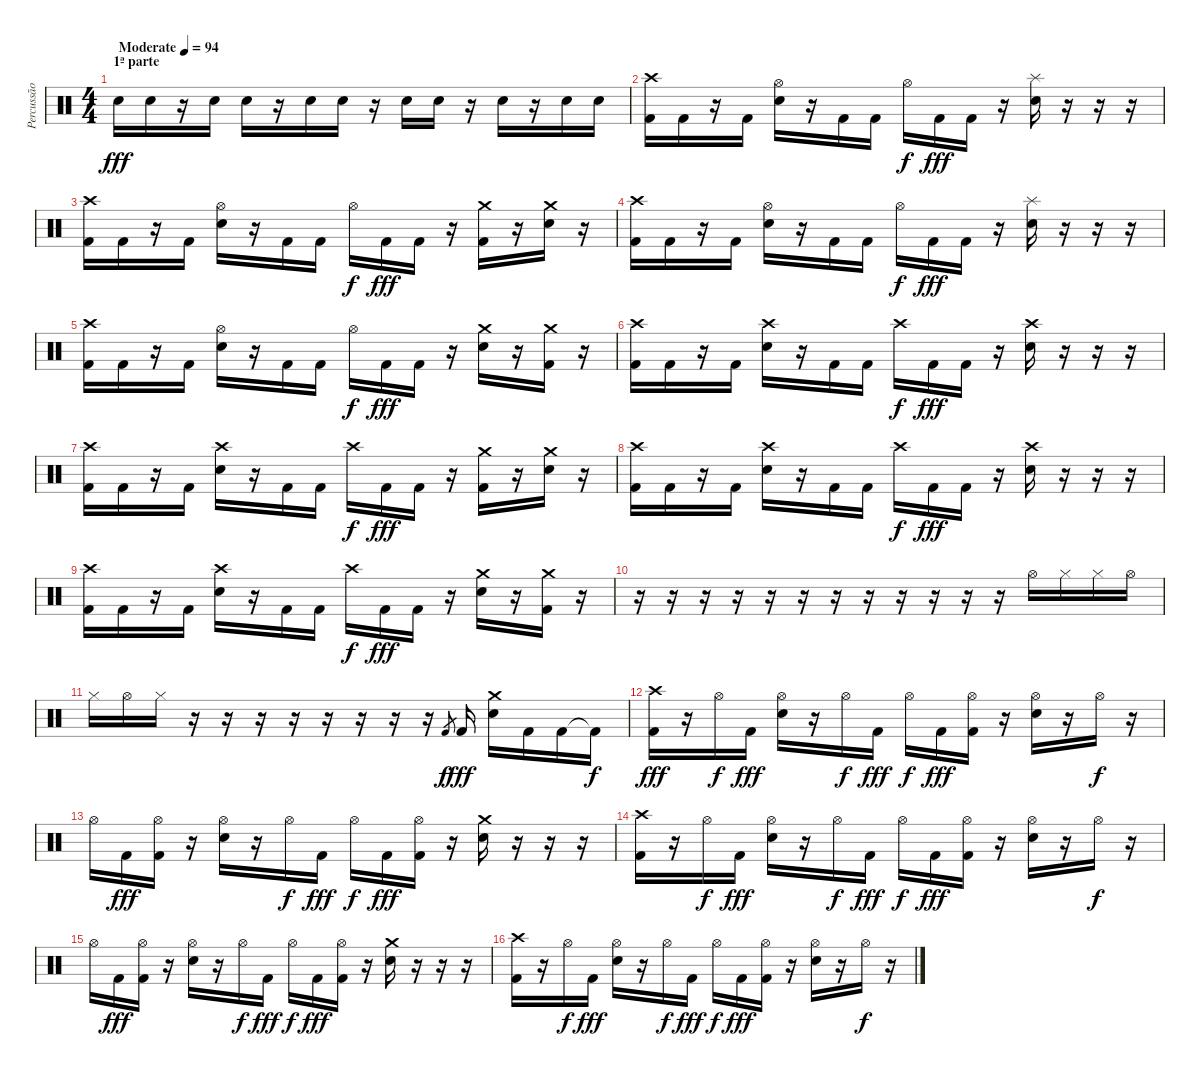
\track ("Percussão" "Percussão") {instrument percussion}
\staff {score}
\articulation defaults
\ts (4 4)
\section ("" "1ª parte")
\tempo (94 "Moderate")
\clef neutral
\ks c "Electric Snare (hit)".16{dy fff} "Electric Snare (hit)".16
r.16 "Electric Snare (hit)".16 "Electric Snare (hit)".16 r.16 "Electric Snare (hit)".16 "Electric Snare (hit)".16 r.16 "Electric Snare (hit)".16 "Electric Snare (hit)".16 r.16 "Electric Snare (hit)".16 r.16 "Electric Snare (hit)".16 "Electric Snare (hit)".16 |
("Crash high (hit)" "Kick (hit) 2").16 "Kick (hit) 2".16 r.16 "Kick (hit) 2".16 ("Hi-Hat (open)" "Electric Snare (hit)").16 r.16 "Kick (hit) 2".16 "Kick (hit) 2".16 "Hi-Hat (open)".16{dy f} "Kick (hit) 2".16{dy fff} "Kick (hit) 2".16 r.16 ("Splash (hit)" "Electric Snare (hit)").16 r.16 r.16 r.16 |
("Crash high (hit)" "Kick (hit) 2").16 "Kick (hit) 2".16 r.16 "Kick (hit) 2".16 ("Hi-Hat (open)" "Electric Snare (hit)").16 r.16 "Kick (hit) 2".16 "Kick (hit) 2".16 "Hi-Hat (open)".16{dy f} "Kick (hit) 2".16{dy fff} "Kick (hit) 2".16 r.16 ("Crash medium (hit)" "Kick (hit) 2").16 r.16 ("Crash medium (hit)" "Electric Snare (hit)").16 r.16 |
("Crash high (hit)" "Kick (hit) 2").16 "Kick (hit) 2".16 r.16 "Kick (hit) 2".16 ("Hi-Hat (open)" "Electric Snare (hit)").16 r.16 "Kick (hit) 2".16 "Kick (hit) 2".16 "Hi-Hat (open)".16{dy f} "Kick (hit) 2".16{dy fff} "Kick (hit) 2".16 r.16 ("Splash (hit)" "Electric Snare (hit)").16 r.16 r.16 r.16 |
("Crash high (hit)" "Kick (hit) 2").16 "Kick (hit) 2".16 r.16 "Kick (hit) 2".16 ("Hi-Hat (open)" "Electric Snare (hit)").16 r.16 "Kick (hit) 2".16 "Kick (hit) 2".16 "Hi-Hat (open)".16{dy f} "Kick (hit) 2".16{dy fff} "Kick (hit) 2".16 r.16 ("Crash medium (hit)" "Electric Snare (hit)").16 r.16 ("Crash medium (hit)" "Kick (hit) 2").16 r.16 |
("Crash high (hit)" "Kick (hit) 2").16 "Kick (hit) 2".16 r.16 "Kick (hit) 2".16 ("Crash high (hit)" "Electric Snare (hit)").16 r.16 "Kick (hit) 2".16 "Kick (hit) 2".16 "Crash high (hit)".16{dy f} "Kick (hit) 2".16{dy fff} "Kick (hit) 2".16 r.16 ("Crash high (hit)" "Electric Snare (hit)").16 r.16 r.16 r.16 |
("Crash high (hit)" "Kick (hit) 2").16 "Kick (hit) 2".16 r.16 "Kick (hit) 2".16 ("Crash high (hit)" "Electric Snare (hit)").16 r.16 "Kick (hit) 2".16 "Kick (hit) 2".16 "Crash high (hit)".16{dy f} "Kick (hit) 2".16{dy fff} "Kick (hit) 2".16 r.16 ("Crash medium (hit)" "Kick (hit) 2").16 r.16 ("Crash medium (hit)" "Electric Snare (hit)").16 r.16 |
("Crash high (hit)" "Kick (hit) 2").16 "Kick (hit) 2".16 r.16 "Kick (hit) 2".16 ("Crash high (hit)" "Electric Snare (hit)").16 r.16 "Kick (hit) 2".16 "Kick (hit) 2".16 "Crash high (hit)".16{dy f} "Kick (hit) 2".16{dy fff} "Kick (hit) 2".16 r.16 ("Crash high (hit)" "Electric Snare (hit)").16 r.16 r.16 r.16 |
("Crash high (hit)" "Kick (hit) 2").16 "Kick (hit) 2".16 r.16 "Kick (hit) 2".16 ("Crash high (hit)" "Electric Snare (hit)").16 r.16 "Kick (hit) 2".16 "Kick (hit) 2".16 "Crash high (hit)".16{dy f} "Kick (hit) 2".16{dy fff} "Kick (hit) 2".16 r.16 ("Crash medium (hit)" "Electric Snare (hit)").16 r.16 ("Crash medium (hit)" "Kick (hit) 2").16 r.16 |
r.16 r.16 r.16 r.16 r.16 r.16 r.16 r.16 r.16 r.16 r.16 r.16 "Hi-Hat (open)".16 "Hi-Hat (closed)".16 "Hi-Hat (closed)".16 "Hi-Hat (open)".16 |
"Hi-Hat (closed)".16 "Hi-Hat (open)".16 "Hi-Hat (closed)".16 r.16 r.16 r.16 r.16 r.16 r.16 r.16 r.16 "Kick (hit) 2".8{gr dy f} "Kick (hit) 2".16{dy fff} ("Crash medium (hit)" "Electric Snare (hit)").16 "Kick (hit) 2".16 "Kick (hit) 2".16 "Kick (hit) 2"{t}.16{dy f} |
("Crash high (hit)" "Kick (hit) 2").16{dy fff} r.16 "Hi-Hat (open)".16{dy f} "Kick (hit) 2".16{dy fff} ("Hi-Hat (open)" "Electric Snare (hit)").16 r.16 "Hi-Hat (open)".16{dy f} "Kick (hit) 2".16{dy fff} "Hi-Hat (open)".16{dy f} "Kick (hit) 2".16{dy fff} ("Hi-Hat (open)" "Kick (hit) 2").16 r.16 ("Hi-Hat (open)" "Electric Snare (hit)").16 r.16 "Hi-Hat (open)".16{dy f} r.16 |
"Hi-Hat (open)".16 "Kick (hit) 2".16{dy fff} ("Hi-Hat (open)" "Kick (hit) 2").16 r.16 ("Hi-Hat (open)" "Electric Snare (hit)").16 r.16 "Hi-Hat (open)".16{dy f} "Kick (hit) 2".16{dy fff} "Hi-Hat (open)".16{dy f} "Kick (hit) 2".16{dy fff} ("Hi-Hat (open)" "Kick (hit) 2").16 r.16 ("Crash medium (hit)" "Electric Snare (hit)").16 r.16 r.16 r.16 |
("Crash high (hit)" "Kick (hit) 2").16 r.16 "Hi-Hat (open)".16{dy f} "Kick (hit) 2".16{dy fff} ("Hi-Hat (open)" "Electric Snare (hit)").16 r.16 "Hi-Hat (open)".16{dy f} "Kick (hit) 2".16{dy fff} "Hi-Hat (open)".16{dy f} "Kick (hit) 2".16{dy fff} ("Hi-Hat (open)" "Kick (hit) 2").16 r.16 ("Hi-Hat (open)" "Electric Snare (hit)").16 r.16 "Hi-Hat (open)".16{dy f} r.16 |
"Hi-Hat (open)".16 "Kick (hit) 2".16{dy fff} ("Hi-Hat (open)" "Kick (hit) 2").16 r.16 ("Hi-Hat (open)" "Electric Snare (hit)").16 r.16 "Hi-Hat (open)".16{dy f} "Kick (hit) 2".16{dy fff} "Hi-Hat (open)".16{dy f} "Kick (hit) 2".16{dy fff} ("Hi-Hat (open)" "Kick (hit) 2").16 r.16 ("Crash medium (hit)" "Electric Snare (hit)").16 r.16 r.16 r.16 |
("Crash high (hit)" "Kick (hit) 2").16 r.16 "Hi-Hat (open)".16{dy f} "Kick (hit) 2".16{dy fff} ("Hi-Hat (open)" "Electric Snare (hit)").16 r.16 "Hi-Hat (open)".16{dy f} "Kick (hit) 2".16{dy fff} "Hi-Hat (open)".16{dy f} "Kick (hit) 2".16{dy fff} ("Hi-Hat (open)" "Kick (hit) 2").16 r.16 ("Hi-Hat (open)" "Electric Snare (hit)").16 r.16 "Hi-Hat (open)".16{dy f} r.16
